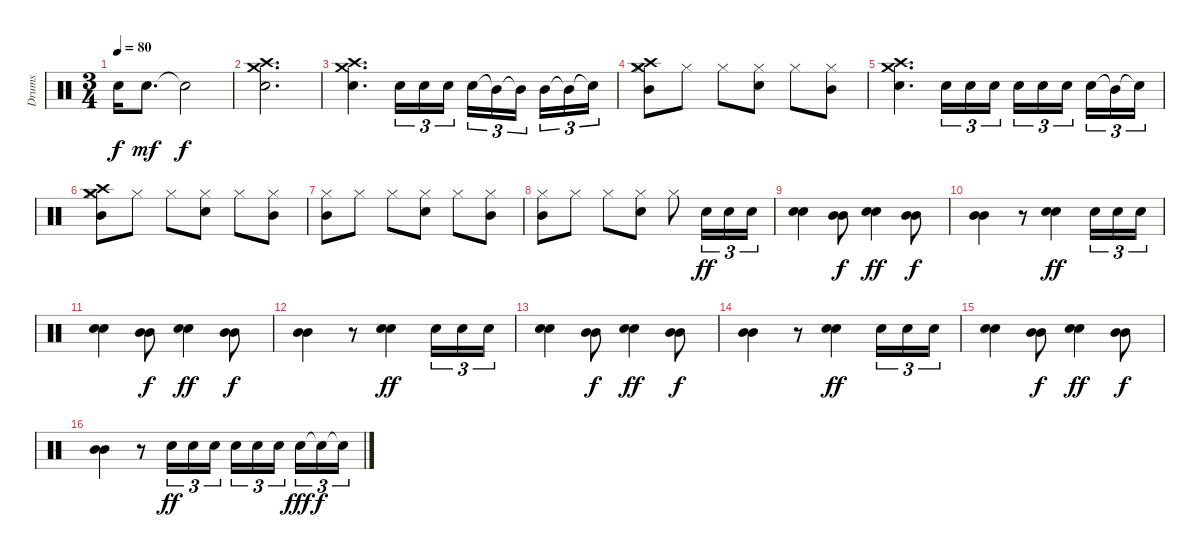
\track ("Drums" "Drums") {instrument percussion}
\staff {score}
\articulation defaults
\ts (3 4)
\tempo 80
\clef neutral
\ks c "Snare (hit) 2".16{dy f volume 16} "Snare (hit) 2".8{d dy mf} "Snare (hit)"{t}.2{dy f}
|
("Crash high (hit)" "Crash medium (hit)" "Snare (hit) 2").2{d} |
("Crash high (hit)" "Crash medium (hit)" "Snare (hit) 2").4{d} "Snare (hit) 2".16{tu (3 2)} "Snare (hit) 2".16{tu (3 2)} "Snare (hit) 2".16{tu (3 2)} "Snare (hit) 2".16{tu (3 2)} "Mid Tom (hit)"{t}.16{tu (3 2)} "Mid Tom (hit)"{t}.16{tu (3 2)} "Mid Tom (hit)".16{tu (3 2)} "Mid Tom (hit)"{t}.16{tu (3 2)} "Snare (hit)"{t}.16{tu (3 2)} |
("Crash high (hit)" "Crash medium (hit)" "Hi-Hat (closed)" "Mid Tom (hit)").8 "Hi-Hat (closed)".8 "Hi-Hat (closed)".8 ("Hi-Hat (closed)" "Snare (hit) 2").8 "Hi-Hat (closed)".8 ("Hi-Hat (closed)" "Mid Tom (hit)").8 |
("Crash high (hit)" "Crash medium (hit)" "Snare (hit) 2").4{d} "Snare (hit) 2".16{tu (3 2)} "Snare (hit) 2".16{tu (3 2)} "Snare (hit) 2".16{tu (3 2)} "Snare (hit) 2".16{tu (3 2)} "Snare (hit) 2".16{tu (3 2)} "Snare (hit) 2".16{tu (3 2)} "Snare (hit) 2".16{tu (3 2)} "Mid Tom (hit)"{t}.16{tu (3 2)} "Snare (hit)"{t}.16{tu (3 2)} |
("Crash high (hit)" "Crash medium (hit)" "Hi-Hat (closed)" "Mid Tom (hit)").8 "Hi-Hat (closed)".8 "Hi-Hat (closed)".8 ("Hi-Hat (closed)" "Snare (hit) 2").8 "Hi-Hat (closed)".8 ("Hi-Hat (closed)" "Mid Tom (hit)").8 |
("Hi-Hat (closed)" "Mid Tom (hit)").8 "Hi-Hat (closed)".8 "Hi-Hat (closed)".8 ("Hi-Hat (closed)" "Snare (hit) 2").8 "Hi-Hat (closed)".8 ("Hi-Hat (closed)" "Mid Tom (hit)").8 |
("Hi-Hat (closed)" "Mid Tom (hit)").8 "Hi-Hat (closed)".8 "Hi-Hat (closed)".8 ("Hi-Hat (closed)" "Snare (hit) 2").8 "Hi-Hat (closed)".8 "Snare (hit) 2".16{tu (3 2) dy ff} "Snare (hit) 2".16{tu (3 2)} "Snare (hit) 2".16{tu (3 2)} |
("Snare (hit) 2" "Snare (hit) 2").4 ("Mid Tom (hit)" "Mid Tom (hit)").8{dy f} ("Snare (hit) 2" "Snare (hit) 2").4{dy ff} ("Mid Tom (hit)" "Mid Tom (hit)").8{dy f} |
("Mid Tom (hit)" "Mid Tom (hit)").4 r.8 ("Snare (hit) 2" "Snare (hit) 2").4{dy ff} "Snare (hit) 2".16{tu (3 2)} "Snare (hit) 2".16{tu (3 2)} "Snare (hit) 2".16{tu (3 2)} |
("Snare (hit) 2" "Snare (hit) 2").4 ("Mid Tom (hit)" "Mid Tom (hit)").8{dy f} ("Snare (hit) 2" "Snare (hit) 2").4{dy ff} ("Mid Tom (hit)" "Mid Tom (hit)").8{dy f} |
("Mid Tom (hit)" "Mid Tom (hit)").4 r.8 ("Snare (hit) 2" "Snare (hit) 2").4{dy ff} "Snare (hit) 2".16{tu (3 2)} "Snare (hit) 2".16{tu (3 2)} "Snare (hit) 2".16{tu (3 2)} |
("Snare (hit) 2" "Snare (hit) 2").4 ("Mid Tom (hit)" "Mid Tom (hit)").8{dy f} ("Snare (hit) 2" "Snare (hit) 2").4{dy ff} ("Mid Tom (hit)" "Mid Tom (hit)").8{dy f} |
("Mid Tom (hit)" "Mid Tom (hit)").4 r.8 ("Snare (hit) 2" "Snare (hit) 2").4{dy ff} "Snare (hit) 2".16{tu (3 2)} "Snare (hit) 2".16{tu (3 2)} "Snare (hit) 2".16{tu (3 2)} |
("Snare (hit) 2" "Snare (hit) 2").4 ("Mid Tom (hit)" "Mid Tom (hit)").8{dy f} ("Snare (hit) 2" "Snare (hit) 2").4{dy ff} ("Mid Tom (hit)" "Mid Tom (hit)").8{dy f} |
("Mid Tom (hit)" "Mid Tom (hit)").4 r.8 "Snare (hit) 2".16{tu (3 2) dy ff} "Snare (hit) 2".16{tu (3 2)} "Snare (hit) 2".16{tu (3 2)} "Snare (hit) 2".16{tu (3 2)} "Snare (hit) 2".16{tu (3 2)} "Snare (hit) 2".16{tu (3 2)} "Snare (hit) 2".16{tu (3 2) dy fff} "Snare (hit)"{t}.16{tu (3 2) dy f} "Snare (hit)"{t}.16{tu (3 2)}
